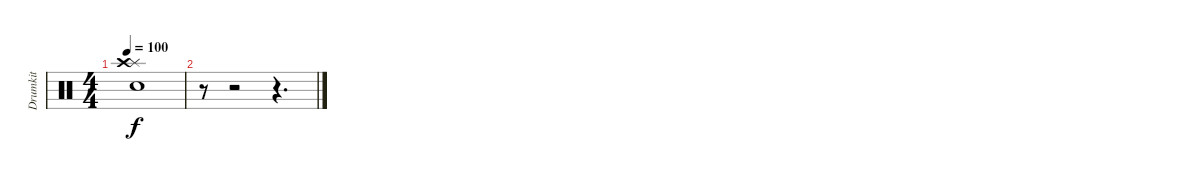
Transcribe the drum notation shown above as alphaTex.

\track ("Drumkit" "Drumkit") {instrument percussion}
\staff {score}
\articulation defaults
\ts (4 4)
\tempo 100
\clef neutral
\ks c
("Splash (hit)" "Crash high (hit)" "Snare (hit) 2").1{dy f} |
r.8 r.2 r.4{d}
